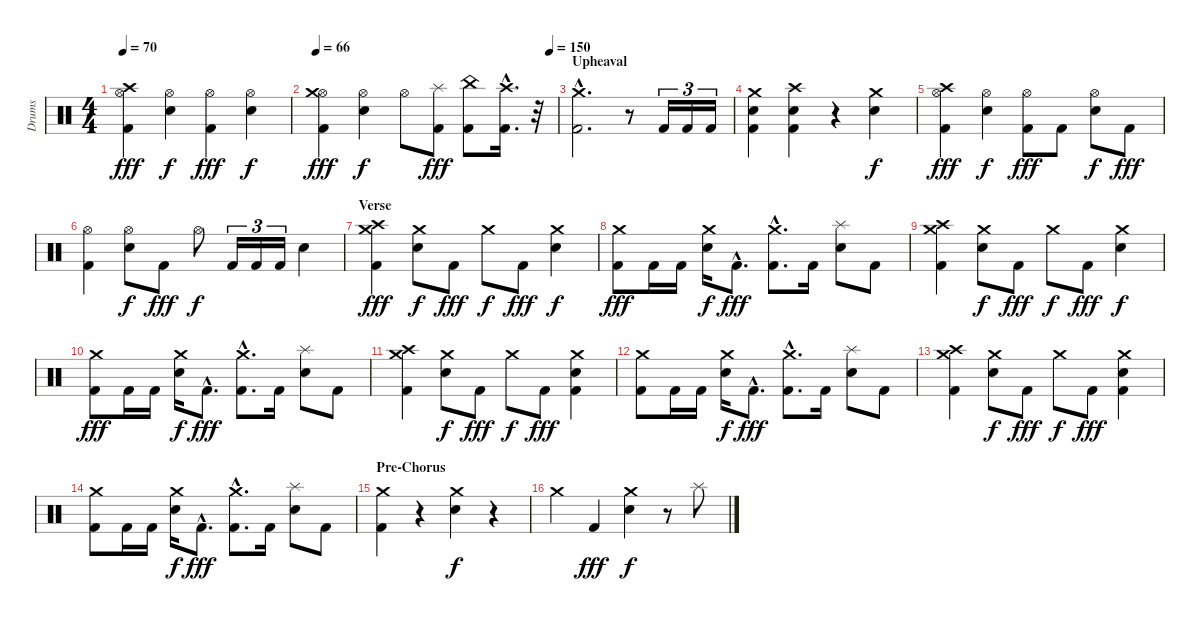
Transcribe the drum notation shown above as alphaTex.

\track ("Drums" "Drums") {instrument percussion}
\staff {score}
\articulation defaults
\ts (4 4)
\tempo 70
\clef neutral
\ks c
("Hi-Hat (open)" "Crash high (hit)" "Kick (hit) 2").4{dy fff} ("Hi-Hat (open)" "Snare (hit) 2").4{dy f} ("Hi-Hat (open)" "Kick (hit) 2").4{dy fff} ("Hi-Hat (open)" "Snare (hit) 2").4{dy f} |
\tempo 66
\tempo (150 0.96875)
("Hi-Hat (open)" "Crash medium (hit)" "Kick (hit) 2").4{dy fff} ("Hi-Hat (open)" "Snare (hit) 2").4{dy f} "Hi-Hat (open)".8 ("Splash (hit)" "Kick (hit) 2").8{dy fff} ("China (hit)" "Kick (hit) 2").8 ("Crash high (hit)"{hac} "Kick (hit) 2"{hac}).16{d} r.32 |
\section ("" "Upheaval")
("Crash medium (hit)"{hac} "Kick (hit) 2"{hac}).2{d} r.8 "Kick (hit) 2".16{tu (3 2)} "Kick (hit) 2".16{tu (3 2)} "Kick (hit) 2".16{tu (3 2)} |
("Crash medium (hit)" "Snare (hit) 2" "Kick (hit) 2").4 ("Crash high (hit)" "Snare (hit) 2" "Kick (hit) 2").4 r.4 ("Crash medium (hit)" "Snare (hit) 2").4{dy f} |
("Hi-Hat (open)" "Crash high (hit)" "Kick (hit) 2").4{dy fff} ("Hi-Hat (open)" "Snare (hit) 2").4{dy f} ("Hi-Hat (open)" "Kick (hit) 2").8{dy fff} "Kick (hit) 2".8 ("Hi-Hat (open)" "Snare (hit) 2").8{dy f} "Kick (hit) 2".8{dy fff} |
("Hi-Hat (open)" "Kick (hit) 2").4 ("Hi-Hat (open)" "Snare (hit) 2").8{dy f} "Kick (hit) 2".8{dy fff} "Hi-Hat (open)".8{dy f} "Kick (hit) 2".16{tu (3 2)} "Kick (hit) 2".16{tu (3 2)} "Kick (hit) 2".16{tu (3 2)} "Snare (hit) 2".4 |
\section ("" "Verse")
("Crash medium (hit)" "Crash high (hit)" "Kick (hit) 2").4{dy fff} ("Crash medium (hit)" "Snare (hit) 2").8{dy f} "Kick (hit) 2".8{dy fff} "Crash medium (hit)".8{dy f} "Kick (hit) 2".8{dy fff} ("Crash medium (hit)" "Snare (hit) 2").4{dy f} |
("Crash medium (hit)" "Kick (hit) 2").8{dy fff} "Kick (hit) 2".16 "Kick (hit) 2".16 ("Crash medium (hit)" "Snare (hit) 2").16{dy f} "Kick (hit) 2"{hac}.8{d dy fff} ("Crash medium (hit)"{hac} "Kick (hit) 2"{hac}).8{d} "Kick (hit) 2".16 ("Splash (hit)" "Snare (hit) 2").8 "Kick (hit) 2".8 |
("Crash medium (hit)" "Crash high (hit)" "Kick (hit) 2").4 ("Crash medium (hit)" "Snare (hit) 2").8{dy f} "Kick (hit) 2".8{dy fff} "Crash medium (hit)".8{dy f} "Kick (hit) 2".8{dy fff} ("Crash medium (hit)" "Snare (hit) 2").4{dy f} |
("Crash medium (hit)" "Kick (hit) 2").8{dy fff} "Kick (hit) 2".16 "Kick (hit) 2".16 ("Crash medium (hit)" "Snare (hit) 2").16{dy f} "Kick (hit) 2"{hac}.8{d dy fff} ("Crash medium (hit)"{hac} "Kick (hit) 2"{hac}).8{d} "Kick (hit) 2".16 ("Splash (hit)" "Snare (hit) 2").8 "Kick (hit) 2".8 |
("Crash medium (hit)" "Crash high (hit)" "Kick (hit) 2").4 ("Crash medium (hit)" "Snare (hit) 2").8{dy f} "Kick (hit) 2".8{dy fff} "Crash medium (hit)".8{dy f} "Kick (hit) 2".8{dy fff} ("Crash medium (hit)" "Snare (hit) 2" "Kick (hit) 2").4 |
("Crash medium (hit)" "Kick (hit) 2").8 "Kick (hit) 2".16 "Kick (hit) 2".16 ("Crash medium (hit)" "Snare (hit) 2").16{dy f} "Kick (hit) 2"{hac}.8{d dy fff} ("Crash medium (hit)"{hac} "Kick (hit) 2"{hac}).8{d} "Kick (hit) 2".16 ("Splash (hit)" "Snare (hit) 2").8 "Kick (hit) 2".8 |
("Crash medium (hit)" "Crash high (hit)" "Kick (hit) 2").4 ("Crash medium (hit)" "Snare (hit) 2").8{dy f} "Kick (hit) 2".8{dy fff} "Crash medium (hit)".8{dy f} "Kick (hit) 2".8{dy fff} ("Crash medium (hit)" "Snare (hit) 2" "Kick (hit) 2").4 |
("Crash medium (hit)" "Kick (hit) 2").8 "Kick (hit) 2".16 "Kick (hit) 2".16 ("Crash medium (hit)" "Snare (hit) 2").16{dy f} "Kick (hit) 2"{hac}.8{d dy fff} ("Crash medium (hit)"{hac} "Kick (hit) 2"{hac}).8{d} "Kick (hit) 2".16 ("Splash (hit)" "Snare (hit) 2").8 "Kick (hit) 2".8 |
\section ("" "Pre-Chorus")
("Crash medium (hit)" "Kick (hit) 2").4 r.4 ("Crash medium (hit)" "Snare (hit) 2").4{dy f} r.4 |
"Crash medium (hit)".4 "Kick (hit) 2".4{dy fff} ("Crash medium (hit)" "Snare (hit) 2").4{dy f} r.8 "Splash (hit)".8
